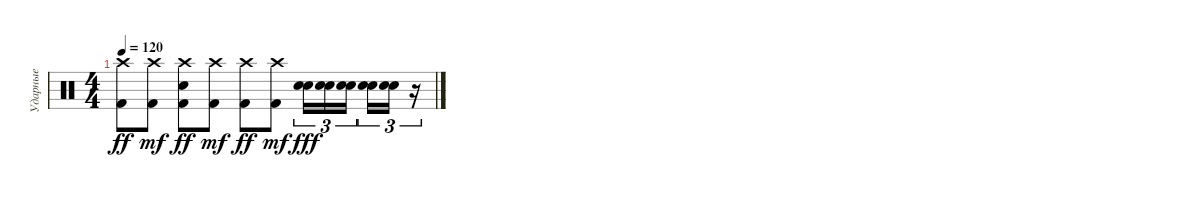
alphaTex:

\track ("Ударные" "Ударные") {instrument percussion}
\staff {score}
\articulation defaults
\ts (4 4)
\tempo 120
\clef neutral
\ks c
("Crash high (hit)" "Kick (hit) 2").8{dy ff} ("Crash high (hit)" "Kick (hit) 2").8{dy mf} ("Crash high (hit)" "Electric Snare (hit)" "Kick (hit) 2").8{dy ff} ("Crash high (hit)" "Kick (hit) 2").8{dy mf} ("Crash high (hit)" "Kick (hit) 2").8{dy ff} ("Crash high (hit)" "Kick (hit) 2").8{dy mf} ("Electric Snare (hit)" "Electric Snare (hit)").16{tu (3 2) dy fff} ("Electric Snare (hit)" "Electric Snare (hit)").16{tu (3 2)} ("Electric Snare (hit)" "Electric Snare (hit)").16{tu (3 2)} ("Electric Snare (hit)" "Electric Snare (hit)").16{tu (3 2)} ("Electric Snare (hit)" "Electric Snare (hit)").16{tu (3 2)} r.16{tu (3 2)}
